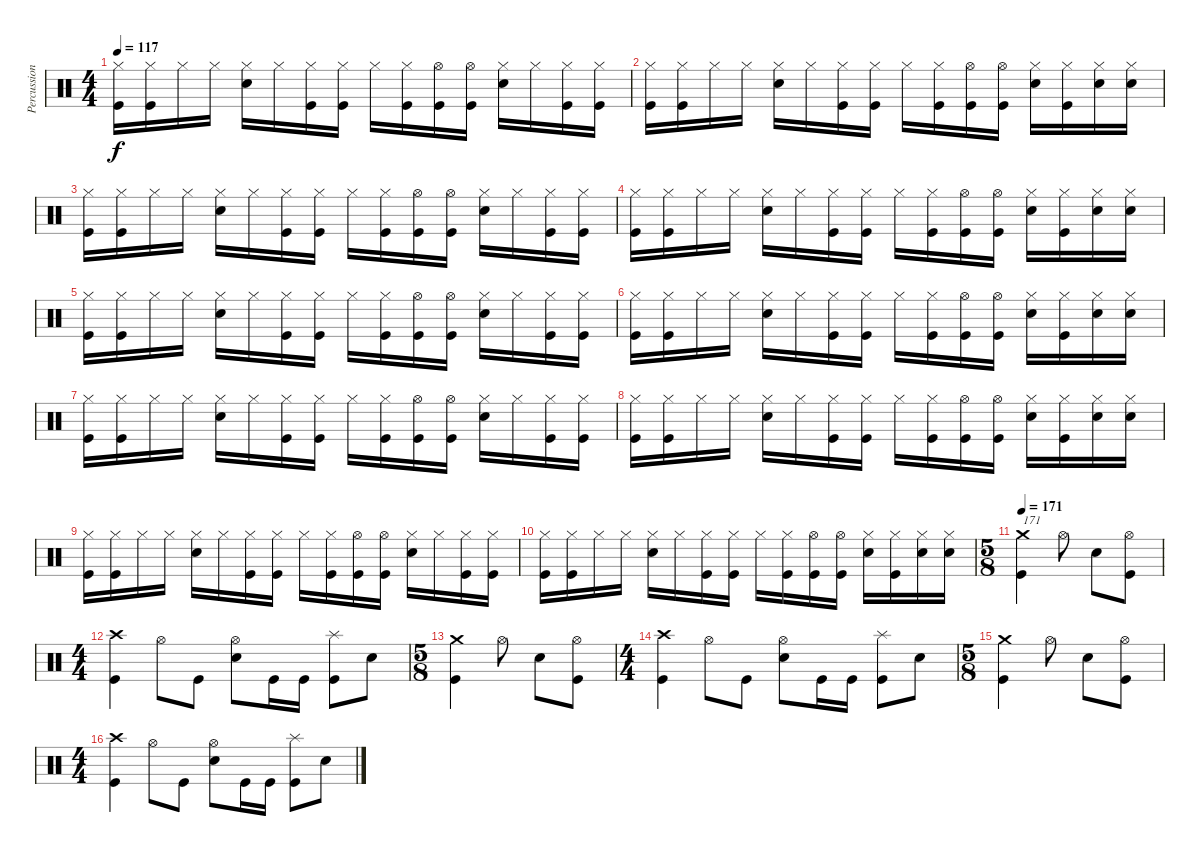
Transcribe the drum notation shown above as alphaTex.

\track ("Percussions" "Percussion") {instrument percussion}
\staff {score}
\articulation defaults
\ts (4 4)
\tempo 117
\clef neutral
\ks c
("Hi-Hat (closed)" "Kick (hit)").16{dy f} ("Hi-Hat (closed)" "Kick (hit)").16 "Hi-Hat (closed)".16 "Hi-Hat (closed)".16 ("Hi-Hat (closed)" "Snare (hit) 2").16 "Hi-Hat (closed)".16 ("Hi-Hat (closed)" "Kick (hit)").16 ("Hi-Hat (closed)" "Kick (hit)").16 "Hi-Hat (closed)".16 ("Hi-Hat (closed)" "Kick (hit)").16 ("Hi-Hat (open)" "Kick (hit)").16 ("Hi-Hat (open)" "Kick (hit)").16 ("Hi-Hat (closed)" "Snare (hit) 2").16 "Hi-Hat (closed)".16 ("Hi-Hat (closed)" "Kick (hit)").16 ("Hi-Hat (closed)" "Kick (hit)").16 |
("Hi-Hat (closed)" "Kick (hit)").16 ("Hi-Hat (closed)" "Kick (hit)").16 "Hi-Hat (closed)".16 "Hi-Hat (closed)".16 ("Hi-Hat (closed)" "Snare (hit) 2").16 "Hi-Hat (closed)".16 ("Hi-Hat (closed)" "Kick (hit)").16 ("Hi-Hat (closed)" "Kick (hit)").16 "Hi-Hat (closed)".16 ("Hi-Hat (closed)" "Kick (hit)").16 ("Hi-Hat (open)" "Kick (hit)").16 ("Hi-Hat (open)" "Kick (hit)").16 ("Hi-Hat (closed)" "Snare (hit) 2").16 ("Hi-Hat (closed)" "Kick (hit)").16 ("Hi-Hat (closed)" "Snare (hit) 2").16 ("Hi-Hat (closed)" "Snare (hit) 2").16 |
("Hi-Hat (closed)" "Kick (hit)").16 ("Hi-Hat (closed)" "Kick (hit)").16 "Hi-Hat (closed)".16 "Hi-Hat (closed)".16 ("Hi-Hat (closed)" "Snare (hit) 2").16 "Hi-Hat (closed)".16 ("Hi-Hat (closed)" "Kick (hit)").16 ("Hi-Hat (closed)" "Kick (hit)").16 "Hi-Hat (closed)".16 ("Hi-Hat (closed)" "Kick (hit)").16 ("Hi-Hat (open)" "Kick (hit)").16 ("Hi-Hat (open)" "Kick (hit)").16 ("Hi-Hat (closed)" "Snare (hit) 2").16 "Hi-Hat (closed)".16 ("Hi-Hat (closed)" "Kick (hit)").16 ("Hi-Hat (closed)" "Kick (hit)").16 |
("Hi-Hat (closed)" "Kick (hit)").16 ("Hi-Hat (closed)" "Kick (hit)").16 "Hi-Hat (closed)".16 "Hi-Hat (closed)".16 ("Hi-Hat (closed)" "Snare (hit) 2").16 "Hi-Hat (closed)".16 ("Hi-Hat (closed)" "Kick (hit)").16 ("Hi-Hat (closed)" "Kick (hit)").16 "Hi-Hat (closed)".16 ("Hi-Hat (closed)" "Kick (hit)").16 ("Hi-Hat (open)" "Kick (hit)").16 ("Hi-Hat (open)" "Kick (hit)").16 ("Hi-Hat (closed)" "Snare (hit) 2").16 ("Hi-Hat (closed)" "Kick (hit)").16 ("Hi-Hat (closed)" "Snare (hit) 2").16 ("Hi-Hat (closed)" "Snare (hit) 2").16 |
("Hi-Hat (closed)" "Kick (hit)").16 ("Hi-Hat (closed)" "Kick (hit)").16 "Hi-Hat (closed)".16 "Hi-Hat (closed)".16 ("Hi-Hat (closed)" "Snare (hit) 2").16 "Hi-Hat (closed)".16 ("Hi-Hat (closed)" "Kick (hit)").16 ("Hi-Hat (closed)" "Kick (hit)").16 "Hi-Hat (closed)".16 ("Hi-Hat (closed)" "Kick (hit)").16 ("Hi-Hat (open)" "Kick (hit)").16 ("Hi-Hat (open)" "Kick (hit)").16 ("Hi-Hat (closed)" "Snare (hit) 2").16 "Hi-Hat (closed)".16 ("Hi-Hat (closed)" "Kick (hit)").16 ("Hi-Hat (closed)" "Kick (hit)").16 |
("Hi-Hat (closed)" "Kick (hit)").16 ("Hi-Hat (closed)" "Kick (hit)").16 "Hi-Hat (closed)".16 "Hi-Hat (closed)".16 ("Hi-Hat (closed)" "Snare (hit) 2").16 "Hi-Hat (closed)".16 ("Hi-Hat (closed)" "Kick (hit)").16 ("Hi-Hat (closed)" "Kick (hit)").16 "Hi-Hat (closed)".16 ("Hi-Hat (closed)" "Kick (hit)").16 ("Hi-Hat (open)" "Kick (hit)").16 ("Hi-Hat (open)" "Kick (hit)").16 ("Hi-Hat (closed)" "Snare (hit) 2").16 ("Hi-Hat (closed)" "Kick (hit)").16 ("Hi-Hat (closed)" "Snare (hit) 2").16 ("Hi-Hat (closed)" "Snare (hit) 2").16 |
("Hi-Hat (closed)" "Kick (hit)").16 ("Hi-Hat (closed)" "Kick (hit)").16 "Hi-Hat (closed)".16 "Hi-Hat (closed)".16 ("Hi-Hat (closed)" "Snare (hit) 2").16 "Hi-Hat (closed)".16 ("Hi-Hat (closed)" "Kick (hit)").16 ("Hi-Hat (closed)" "Kick (hit)").16 "Hi-Hat (closed)".16 ("Hi-Hat (closed)" "Kick (hit)").16 ("Hi-Hat (open)" "Kick (hit)").16 ("Hi-Hat (open)" "Kick (hit)").16 ("Hi-Hat (closed)" "Snare (hit) 2").16 "Hi-Hat (closed)".16 ("Hi-Hat (closed)" "Kick (hit)").16 ("Hi-Hat (closed)" "Kick (hit)").16 |
("Hi-Hat (closed)" "Kick (hit)").16 ("Hi-Hat (closed)" "Kick (hit)").16 "Hi-Hat (closed)".16 "Hi-Hat (closed)".16 ("Hi-Hat (closed)" "Snare (hit) 2").16 "Hi-Hat (closed)".16 ("Hi-Hat (closed)" "Kick (hit)").16 ("Hi-Hat (closed)" "Kick (hit)").16 "Hi-Hat (closed)".16 ("Hi-Hat (closed)" "Kick (hit)").16 ("Hi-Hat (open)" "Kick (hit)").16 ("Hi-Hat (open)" "Kick (hit)").16 ("Hi-Hat (closed)" "Snare (hit) 2").16 ("Hi-Hat (closed)" "Kick (hit)").16 ("Hi-Hat (closed)" "Snare (hit) 2").16 ("Hi-Hat (closed)" "Snare (hit) 2").16 |
("Hi-Hat (closed)" "Kick (hit)").16 ("Hi-Hat (closed)" "Kick (hit)").16 "Hi-Hat (closed)".16 "Hi-Hat (closed)".16 ("Hi-Hat (closed)" "Snare (hit) 2").16 "Hi-Hat (closed)".16 ("Hi-Hat (closed)" "Kick (hit)").16 ("Hi-Hat (closed)" "Kick (hit)").16 "Hi-Hat (closed)".16 ("Hi-Hat (closed)" "Kick (hit)").16 ("Hi-Hat (open)" "Kick (hit)").16 ("Hi-Hat (open)" "Kick (hit)").16 ("Hi-Hat (closed)" "Snare (hit) 2").16 "Hi-Hat (closed)".16 ("Hi-Hat (closed)" "Kick (hit)").16 ("Hi-Hat (closed)" "Kick (hit)").16 |
("Hi-Hat (closed)" "Kick (hit)").16 ("Hi-Hat (closed)" "Kick (hit)").16 "Hi-Hat (closed)".16 "Hi-Hat (closed)".16 ("Hi-Hat (closed)" "Snare (hit) 2").16 "Hi-Hat (closed)".16 ("Hi-Hat (closed)" "Kick (hit)").16 ("Hi-Hat (closed)" "Kick (hit)").16 "Hi-Hat (closed)".16 ("Hi-Hat (closed)" "Kick (hit)").16 ("Hi-Hat (open)" "Kick (hit)").16 ("Hi-Hat (open)" "Kick (hit)").16 ("Hi-Hat (closed)" "Snare (hit) 2").16 ("Hi-Hat (closed)" "Kick (hit)").16 ("Hi-Hat (closed)" "Snare (hit) 2").16 ("Hi-Hat (closed)" "Snare (hit) 2").16 |
\ts (5 8)
\tempo 171
("Crash medium (hit)" "Kick (hit)").4{txt "171"} "Hi-Hat (open)".8 "Snare (hit) 2".8 ("Hi-Hat (open)" "Kick (hit)").8 |
\ts (4 4)
("Crash high (hit)" "Kick (hit)").4 "Hi-Hat (open)".8 "Kick (hit)".8 ("Hi-Hat (open)" "Snare (hit) 2").8 "Kick (hit)".16 "Kick (hit)".16 ("Splash (hit)" "Kick (hit)").8 "Snare (hit) 2".8 |
\ts (5 8)
("Crash medium (hit)" "Kick (hit)").4 "Hi-Hat (open)".8 "Snare (hit) 2".8 ("Hi-Hat (open)" "Kick (hit)").8 |
\ts (4 4)
("Crash high (hit)" "Kick (hit)").4 "Hi-Hat (open)".8 "Kick (hit)".8 ("Hi-Hat (open)" "Snare (hit) 2").8 "Kick (hit)".16 "Kick (hit)".16 ("Splash (hit)" "Kick (hit)").8 "Snare (hit) 2".8 |
\ts (5 8)
("Crash medium (hit)" "Kick (hit)").4 "Hi-Hat (open)".8 "Snare (hit) 2".8 ("Hi-Hat (open)" "Kick (hit)").8 |
\ts (4 4)
("Crash high (hit)" "Kick (hit)").4 "Hi-Hat (open)".8 "Kick (hit)".8 ("Hi-Hat (open)" "Snare (hit) 2").8 "Kick (hit)".16 "Kick (hit)".16 ("Splash (hit)" "Kick (hit)").8 "Snare (hit) 2".8
